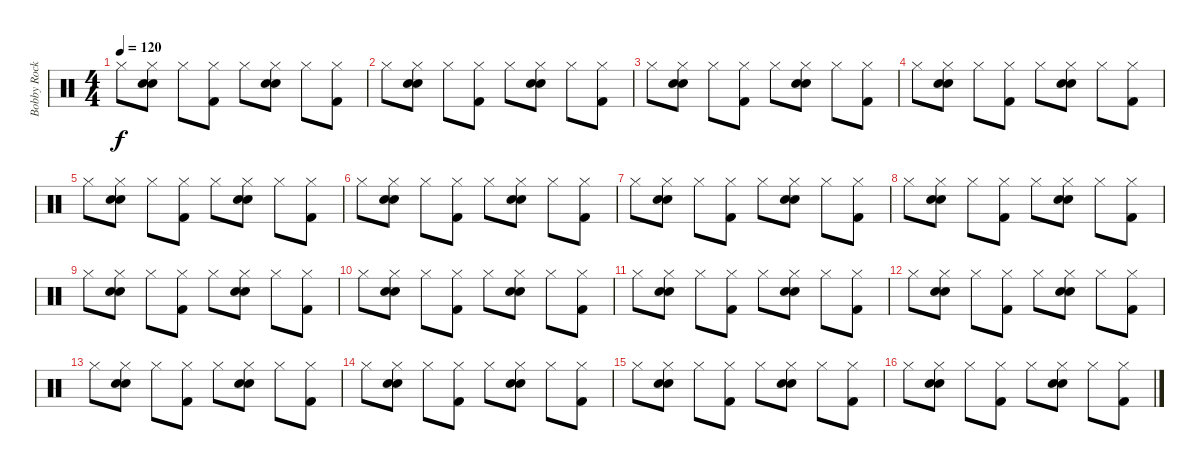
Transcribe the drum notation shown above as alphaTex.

\track ("Bobby Rock" "Bobby Rock") {instrument percussion}
\staff {score}
\articulation defaults
\ts (4 4)
\tempo 120
\clef neutral
\ks c "Hi-Hat (closed)".8{dy f}
("Hi-Hat (closed)" "Snare (hit) 2" "Electric Snare (hit)").8 "Hi-Hat (closed)".8 ("Hi-Hat (closed)" "Kick (hit) 2").8 "Hi-Hat (closed)".8 ("Hi-Hat (closed)" "Snare (hit) 2" "Electric Snare (hit)").8 "Hi-Hat (closed)".8 ("Hi-Hat (closed)" "Kick (hit) 2").8 |
"Hi-Hat (closed)".8 ("Hi-Hat (closed)" "Snare (hit) 2" "Electric Snare (hit)").8 "Hi-Hat (closed)".8 ("Hi-Hat (closed)" "Kick (hit) 2").8 "Hi-Hat (closed)".8 ("Hi-Hat (closed)" "Snare (hit) 2" "Electric Snare (hit)").8 "Hi-Hat (closed)".8 ("Hi-Hat (closed)" "Kick (hit) 2").8 |
"Hi-Hat (closed)".8 ("Hi-Hat (closed)" "Snare (hit) 2" "Electric Snare (hit)").8 "Hi-Hat (closed)".8 ("Hi-Hat (closed)" "Kick (hit) 2").8 "Hi-Hat (closed)".8 ("Hi-Hat (closed)" "Snare (hit) 2" "Electric Snare (hit)").8 "Hi-Hat (closed)".8 ("Hi-Hat (closed)" "Kick (hit) 2").8 |
"Hi-Hat (closed)".8 ("Hi-Hat (closed)" "Snare (hit) 2" "Electric Snare (hit)").8 "Hi-Hat (closed)".8 ("Hi-Hat (closed)" "Kick (hit) 2").8 "Hi-Hat (closed)".8 ("Hi-Hat (closed)" "Snare (hit) 2" "Electric Snare (hit)").8 "Hi-Hat (closed)".8 ("Hi-Hat (closed)" "Kick (hit) 2").8 |
"Hi-Hat (closed)".8 ("Hi-Hat (closed)" "Snare (hit) 2" "Electric Snare (hit)").8 "Hi-Hat (closed)".8 ("Hi-Hat (closed)" "Kick (hit) 2").8 "Hi-Hat (closed)".8 ("Hi-Hat (closed)" "Snare (hit) 2" "Electric Snare (hit)").8 "Hi-Hat (closed)".8 ("Hi-Hat (closed)" "Kick (hit) 2").8 |
"Hi-Hat (closed)".8 ("Hi-Hat (closed)" "Snare (hit) 2" "Electric Snare (hit)").8 "Hi-Hat (closed)".8 ("Hi-Hat (closed)" "Kick (hit) 2").8 "Hi-Hat (closed)".8 ("Hi-Hat (closed)" "Snare (hit) 2" "Electric Snare (hit)").8 "Hi-Hat (closed)".8 ("Hi-Hat (closed)" "Kick (hit) 2").8 |
"Hi-Hat (closed)".8 ("Hi-Hat (closed)" "Snare (hit) 2" "Electric Snare (hit)").8 "Hi-Hat (closed)".8 ("Hi-Hat (closed)" "Kick (hit) 2").8 "Hi-Hat (closed)".8 ("Hi-Hat (closed)" "Snare (hit) 2" "Electric Snare (hit)").8 "Hi-Hat (closed)".8 ("Hi-Hat (closed)" "Kick (hit) 2").8 |
"Hi-Hat (closed)".8 ("Hi-Hat (closed)" "Snare (hit) 2" "Electric Snare (hit)").8 "Hi-Hat (closed)".8 ("Hi-Hat (closed)" "Kick (hit) 2").8 "Hi-Hat (closed)".8 ("Hi-Hat (closed)" "Snare (hit) 2" "Electric Snare (hit)").8 "Hi-Hat (closed)".8 ("Hi-Hat (closed)" "Kick (hit) 2").8 |
"Hi-Hat (closed)".8 ("Hi-Hat (closed)" "Snare (hit) 2" "Electric Snare (hit)").8 "Hi-Hat (closed)".8 ("Hi-Hat (closed)" "Kick (hit) 2").8 "Hi-Hat (closed)".8 ("Hi-Hat (closed)" "Snare (hit) 2" "Electric Snare (hit)").8 "Hi-Hat (closed)".8 ("Hi-Hat (closed)" "Kick (hit) 2").8 |
"Hi-Hat (closed)".8 ("Hi-Hat (closed)" "Snare (hit) 2" "Electric Snare (hit)").8 "Hi-Hat (closed)".8 ("Hi-Hat (closed)" "Kick (hit) 2").8 "Hi-Hat (closed)".8 ("Hi-Hat (closed)" "Snare (hit) 2" "Electric Snare (hit)").8 "Hi-Hat (closed)".8 ("Hi-Hat (closed)" "Kick (hit) 2").8 |
"Hi-Hat (closed)".8 ("Hi-Hat (closed)" "Snare (hit) 2" "Electric Snare (hit)").8 "Hi-Hat (closed)".8 ("Hi-Hat (closed)" "Kick (hit) 2").8 "Hi-Hat (closed)".8 ("Hi-Hat (closed)" "Snare (hit) 2" "Electric Snare (hit)").8 "Hi-Hat (closed)".8 ("Hi-Hat (closed)" "Kick (hit) 2").8 |
"Hi-Hat (closed)".8 ("Hi-Hat (closed)" "Snare (hit) 2" "Electric Snare (hit)").8 "Hi-Hat (closed)".8 ("Hi-Hat (closed)" "Kick (hit) 2").8 "Hi-Hat (closed)".8 ("Hi-Hat (closed)" "Snare (hit) 2" "Electric Snare (hit)").8 "Hi-Hat (closed)".8 ("Hi-Hat (closed)" "Kick (hit) 2").8 |
"Hi-Hat (closed)".8 ("Hi-Hat (closed)" "Snare (hit) 2" "Electric Snare (hit)").8 "Hi-Hat (closed)".8 ("Hi-Hat (closed)" "Kick (hit) 2").8 "Hi-Hat (closed)".8 ("Hi-Hat (closed)" "Snare (hit) 2" "Electric Snare (hit)").8 "Hi-Hat (closed)".8 ("Hi-Hat (closed)" "Kick (hit) 2").8 |
"Hi-Hat (closed)".8 ("Hi-Hat (closed)" "Snare (hit) 2" "Electric Snare (hit)").8 "Hi-Hat (closed)".8 ("Hi-Hat (closed)" "Kick (hit) 2").8 "Hi-Hat (closed)".8 ("Hi-Hat (closed)" "Snare (hit) 2" "Electric Snare (hit)").8 "Hi-Hat (closed)".8 ("Hi-Hat (closed)" "Kick (hit) 2").8 |
"Hi-Hat (closed)".8 ("Hi-Hat (closed)" "Snare (hit) 2" "Electric Snare (hit)").8 "Hi-Hat (closed)".8 ("Hi-Hat (closed)" "Kick (hit) 2").8 "Hi-Hat (closed)".8 ("Hi-Hat (closed)" "Snare (hit) 2" "Electric Snare (hit)").8 "Hi-Hat (closed)".8 ("Hi-Hat (closed)" "Kick (hit) 2").8 |
"Hi-Hat (closed)".8 ("Hi-Hat (closed)" "Snare (hit) 2" "Electric Snare (hit)").8 "Hi-Hat (closed)".8 ("Hi-Hat (closed)" "Kick (hit) 2").8 "Hi-Hat (closed)".8 ("Hi-Hat (closed)" "Snare (hit) 2" "Electric Snare (hit)").8 "Hi-Hat (closed)".8 ("Hi-Hat (closed)" "Kick (hit) 2").8
